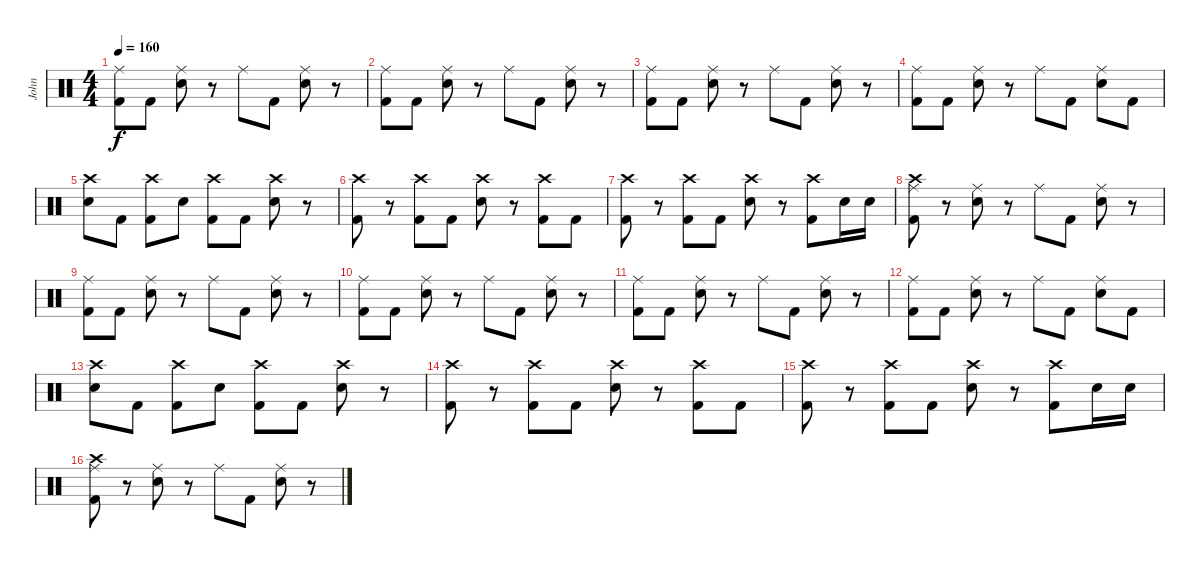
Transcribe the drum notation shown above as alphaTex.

\track ("John" "John") {instrument percussion}
\staff {score}
\articulation defaults
\ts (4 4)
\tempo 160
\clef neutral
\ks c
("Ride (middle)" "Kick (hit) 2").8{dy f} "Kick (hit) 2".8 ("Ride (middle)" "Snare (hit) 2").8 r.8 "Ride (middle)".8 "Kick (hit) 2".8 ("Ride (middle)" "Snare (hit) 2").8 r.8 |
("Ride (middle)" "Kick (hit) 2").8 "Kick (hit) 2".8 ("Ride (middle)" "Snare (hit) 2").8 r.8 "Ride (middle)".8 "Kick (hit) 2".8 ("Ride (middle)" "Snare (hit) 2").8 r.8 |
("Ride (middle)" "Kick (hit) 2").8 "Kick (hit) 2".8 ("Ride (middle)" "Snare (hit) 2").8 r.8 "Ride (middle)".8 "Kick (hit) 2".8 ("Ride (middle)" "Snare (hit) 2").8 r.8 |
("Ride (middle)" "Kick (hit) 2").8 "Kick (hit) 2".8 ("Ride (middle)" "Snare (hit) 2").8 r.8 "Ride (middle)".8 "Kick (hit) 2".8 ("Ride (middle)" "Snare (hit) 2").8 "Kick (hit) 2".8 |
("Crash high (hit)" "Snare (hit) 2").8 "Kick (hit) 2".8 ("Crash high (hit)" "Kick (hit) 2").8 "Snare (hit) 2".8 ("Crash high (hit)" "Kick (hit) 2").8 "Kick (hit) 2".8 ("Crash high (hit)" "Snare (hit) 2").8 r.8 |
("Crash high (hit)" "Kick (hit) 2").8 r.8 ("Crash high (hit)" "Kick (hit) 2").8 "Kick (hit) 2".8 ("Crash high (hit)" "Snare (hit) 2").8 r.8 ("Crash high (hit)" "Kick (hit) 2").8 "Kick (hit) 2".8 |
("Crash high (hit)" "Kick (hit) 2").8 r.8 ("Crash high (hit)" "Kick (hit) 2").8 "Kick (hit) 2".8 ("Crash high (hit)" "Snare (hit) 2").8 r.8 ("Crash high (hit)" "Kick (hit) 2").8 "Snare (hit) 2".16 "Snare (hit) 2".16 |
("Ride (middle)" "Crash high (hit)" "Kick (hit) 2").8 r.8 ("Ride (middle)" "Snare (hit) 2").8 r.8 "Ride (middle)".8 "Kick (hit) 2".8 ("Ride (middle)" "Snare (hit) 2").8 r.8 |
("Ride (middle)" "Kick (hit) 2").8 "Kick (hit) 2".8 ("Ride (middle)" "Snare (hit) 2").8 r.8 "Ride (middle)".8 "Kick (hit) 2".8 ("Ride (middle)" "Snare (hit) 2").8 r.8 |
("Ride (middle)" "Kick (hit) 2").8 "Kick (hit) 2".8 ("Ride (middle)" "Snare (hit) 2").8 r.8 "Ride (middle)".8 "Kick (hit) 2".8 ("Ride (middle)" "Snare (hit) 2").8 r.8 |
("Ride (middle)" "Kick (hit) 2").8 "Kick (hit) 2".8 ("Ride (middle)" "Snare (hit) 2").8 r.8 "Ride (middle)".8 "Kick (hit) 2".8 ("Ride (middle)" "Snare (hit) 2").8 r.8 |
("Ride (middle)" "Kick (hit) 2").8 "Kick (hit) 2".8 ("Ride (middle)" "Snare (hit) 2").8 r.8 "Ride (middle)".8 "Kick (hit) 2".8 ("Ride (middle)" "Snare (hit) 2").8 "Kick (hit) 2".8 |
("Crash high (hit)" "Snare (hit) 2").8 "Kick (hit) 2".8 ("Crash high (hit)" "Kick (hit) 2").8 "Snare (hit) 2".8 ("Crash high (hit)" "Kick (hit) 2").8 "Kick (hit) 2".8 ("Crash high (hit)" "Snare (hit) 2").8 r.8 |
("Crash high (hit)" "Kick (hit) 2").8 r.8 ("Crash high (hit)" "Kick (hit) 2").8 "Kick (hit) 2".8 ("Crash high (hit)" "Snare (hit) 2").8 r.8 ("Crash high (hit)" "Kick (hit) 2").8 "Kick (hit) 2".8 |
("Crash high (hit)" "Kick (hit) 2").8 r.8 ("Crash high (hit)" "Kick (hit) 2").8 "Kick (hit) 2".8 ("Crash high (hit)" "Snare (hit) 2").8 r.8 ("Crash high (hit)" "Kick (hit) 2").8 "Snare (hit) 2".16 "Snare (hit) 2".16 |
("Ride (middle)" "Crash high (hit)" "Kick (hit) 2").8 r.8 ("Ride (middle)" "Snare (hit) 2").8 r.8 "Ride (middle)".8 "Kick (hit) 2".8 ("Ride (middle)" "Snare (hit) 2").8 r.8
